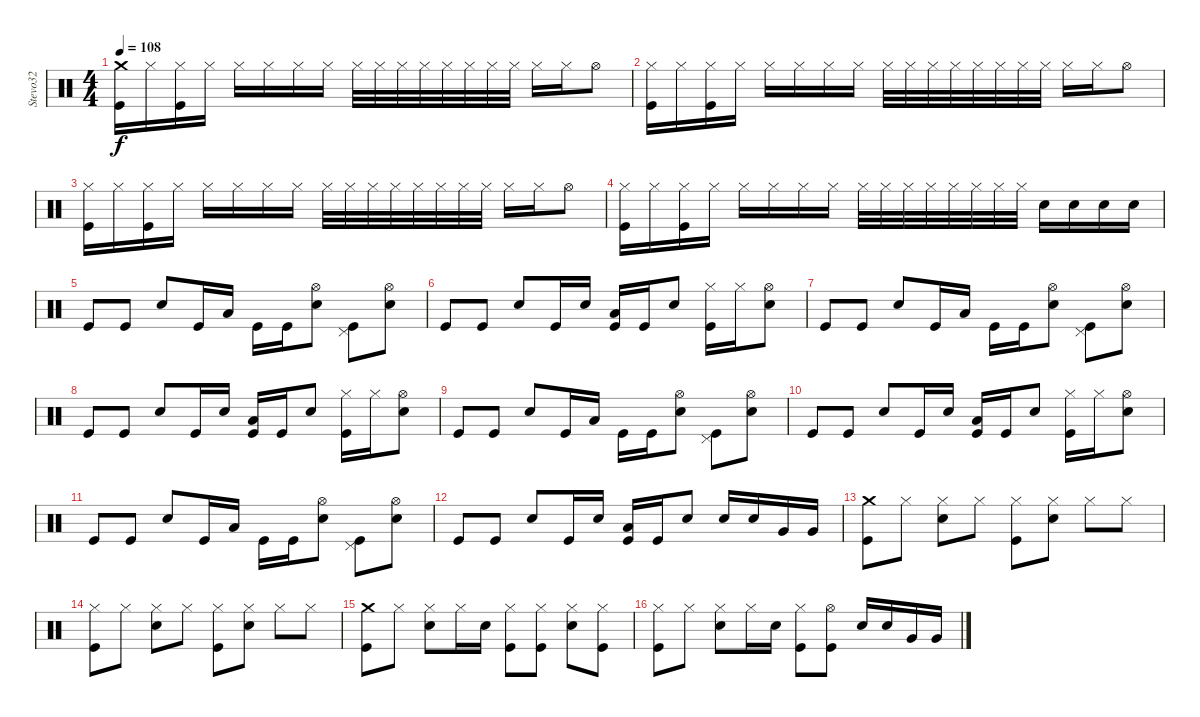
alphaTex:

\track ("Stevo32" "Stevo32") {instrument percussion}
\staff {score}
\articulation defaults
\ts (4 4)
\tempo 108
\clef neutral
\ks c
("Crash medium (hit)" "Kick (hit)").16{dy f} "Hi-Hat (closed)".16 ("Hi-Hat (closed)" "Kick (hit)").16 "Hi-Hat (closed)".16 "Hi-Hat (closed)".16 "Hi-Hat (closed)".16 "Hi-Hat (closed)".16 "Hi-Hat (closed)".16 "Hi-Hat (closed)".32 "Hi-Hat (closed)".32 "Hi-Hat (closed)".32 "Hi-Hat (closed)".32 "Hi-Hat (closed)".32 "Hi-Hat (closed)".32 "Hi-Hat (closed)".32 "Hi-Hat (closed)".32 "Hi-Hat (closed)".16 "Hi-Hat (closed)".16 "Hi-Hat (open)".8 |
("Hi-Hat (closed)" "Kick (hit)").16 "Hi-Hat (closed)".16 ("Hi-Hat (closed)" "Kick (hit)").16 "Hi-Hat (closed)".16 "Hi-Hat (closed)".16 "Hi-Hat (closed)".16 "Hi-Hat (closed)".16 "Hi-Hat (closed)".16 "Hi-Hat (closed)".32 "Hi-Hat (closed)".32 "Hi-Hat (closed)".32 "Hi-Hat (closed)".32 "Hi-Hat (closed)".32 "Hi-Hat (closed)".32 "Hi-Hat (closed)".32 "Hi-Hat (closed)".32 "Hi-Hat (closed)".16 "Hi-Hat (closed)".16 "Hi-Hat (open)".8 |
("Hi-Hat (closed)" "Kick (hit)").16 "Hi-Hat (closed)".16 ("Hi-Hat (closed)" "Kick (hit)").16 "Hi-Hat (closed)".16 "Hi-Hat (closed)".16 "Hi-Hat (closed)".16 "Hi-Hat (closed)".16 "Hi-Hat (closed)".16 "Hi-Hat (closed)".32 "Hi-Hat (closed)".32 "Hi-Hat (closed)".32 "Hi-Hat (closed)".32 "Hi-Hat (closed)".32 "Hi-Hat (closed)".32 "Hi-Hat (closed)".32 "Hi-Hat (closed)".32 "Hi-Hat (closed)".16 "Hi-Hat (closed)".16 "Hi-Hat (open)".8 |
("Hi-Hat (closed)" "Kick (hit)").16 "Hi-Hat (closed)".16 ("Hi-Hat (closed)" "Kick (hit)").16 "Hi-Hat (closed)".16 "Hi-Hat (closed)".16 "Hi-Hat (closed)".16 "Hi-Hat (closed)".16 "Hi-Hat (closed)".16 "Hi-Hat (closed)".32 "Hi-Hat (closed)".32 "Hi-Hat (closed)".32 "Hi-Hat (closed)".32 "Hi-Hat (closed)".32 "Hi-Hat (closed)".32 "Hi-Hat (closed)".32 "Hi-Hat (closed)".32 "Electric Snare (hit)".16 "Electric Snare (hit)".16 "Electric Snare (hit)".16 "Electric Snare (hit)".16 |
"Kick (hit)".8 "Kick (hit)".8 "Electric Snare (hit)".8 "Kick (hit)".16 "Low Floor Tom (hit)".16 "Kick (hit)".16 "Kick (hit)".16 ("Hi-Hat (open)" "Electric Snare (hit)").8 ("Pedal Hi-Hat (hit)" "Kick (hit)").8 ("Hi-Hat (open)" "Electric Snare (hit)").8 |
"Kick (hit)".8 "Kick (hit)".8 "Electric Snare (hit)".8 "Kick (hit)".16 "Electric Snare (hit)".16 ("Low Floor Tom (hit)" "Kick (hit)").16 "Kick (hit)".16 "Electric Snare (hit)".8 ("Hi-Hat (closed)" "Kick (hit)").16 "Hi-Hat (closed)".16 ("Hi-Hat (open)" "Electric Snare (hit)").8 |
"Kick (hit)".8 "Kick (hit)".8 "Electric Snare (hit)".8 "Kick (hit)".16 "Low Floor Tom (hit)".16 "Kick (hit)".16 "Kick (hit)".16 ("Hi-Hat (open)" "Electric Snare (hit)").8 ("Pedal Hi-Hat (hit)" "Kick (hit)").8 ("Hi-Hat (open)" "Electric Snare (hit)").8 |
"Kick (hit)".8 "Kick (hit)".8 "Electric Snare (hit)".8 "Kick (hit)".16 "Electric Snare (hit)".16 ("Low Floor Tom (hit)" "Kick (hit)").16 "Kick (hit)".16 "Electric Snare (hit)".8 ("Hi-Hat (closed)" "Kick (hit)").16 "Hi-Hat (closed)".16 ("Hi-Hat (open)" "Electric Snare (hit)").8 |
"Kick (hit)".8 "Kick (hit)".8 "Electric Snare (hit)".8 "Kick (hit)".16 "Low Floor Tom (hit)".16 "Kick (hit)".16 "Kick (hit)".16 ("Hi-Hat (open)" "Electric Snare (hit)").8 ("Pedal Hi-Hat (hit)" "Kick (hit)").8 ("Hi-Hat (open)" "Electric Snare (hit)").8 |
"Kick (hit)".8 "Kick (hit)".8 "Electric Snare (hit)".8 "Kick (hit)".16 "Electric Snare (hit)".16 ("Low Floor Tom (hit)" "Kick (hit)").16 "Kick (hit)".16 "Electric Snare (hit)".8 ("Hi-Hat (closed)" "Kick (hit)").16 "Hi-Hat (closed)".16 ("Hi-Hat (open)" "Electric Snare (hit)").8 |
"Kick (hit)".8 "Kick (hit)".8 "Electric Snare (hit)".8 "Kick (hit)".16 "Low Floor Tom (hit)".16 "Kick (hit)".16 "Kick (hit)".16 ("Hi-Hat (open)" "Electric Snare (hit)").8 ("Pedal Hi-Hat (hit)" "Kick (hit)").8 ("Hi-Hat (open)" "Electric Snare (hit)").8 |
"Kick (hit)".8 "Kick (hit)".8 "Electric Snare (hit)".8 "Kick (hit)".16 "Electric Snare (hit)".16 ("Low Floor Tom (hit)" "Kick (hit)").16 "Kick (hit)".16 "Electric Snare (hit)".8 "Electric Snare (hit)".16 "Electric Snare (hit)".16 "Very Low Tom (hit)".16 "Very Low Tom (hit)".16 |
("Crash medium (hit)" "Kick (hit)").8 "Hi-Hat (closed)".8 ("Hi-Hat (closed)" "Electric Snare (hit)").8 "Hi-Hat (closed)".8 ("Hi-Hat (closed)" "Kick (hit)").8 ("Hi-Hat (closed)" "Electric Snare (hit)").8 "Hi-Hat (closed)".8 "Hi-Hat (closed)".8 |
("Hi-Hat (closed)" "Kick (hit)").8 "Hi-Hat (closed)".8 ("Hi-Hat (closed)" "Electric Snare (hit)").8 "Hi-Hat (closed)".8 ("Hi-Hat (closed)" "Kick (hit)").8 ("Hi-Hat (closed)" "Electric Snare (hit)").8 "Hi-Hat (closed)".8 "Hi-Hat (closed)".8 |
("Crash medium (hit)" "Kick (hit)").8 "Hi-Hat (closed)".8 ("Hi-Hat (closed)" "Electric Snare (hit)").8 "Hi-Hat (closed)".16 "Electric Snare (hit)".16 ("Hi-Hat (closed)" "Kick (hit)").8 ("Hi-Hat (closed)" "Kick (hit)").8 ("Hi-Hat (closed)" "Electric Snare (hit)").8 ("Hi-Hat (closed)" "Kick (hit)").8 |
("Hi-Hat (closed)" "Kick (hit)").8 "Hi-Hat (closed)".8 ("Hi-Hat (closed)" "Electric Snare (hit)").8 "Hi-Hat (closed)".16 "Electric Snare (hit)".16 ("Hi-Hat (closed)" "Kick (hit)").8 ("Hi-Hat (open)" "Kick (hit)").8 "Electric Snare (hit)".16 "Electric Snare (hit)".16 "Very Low Tom (hit)".16 "Very Low Tom (hit)".16
